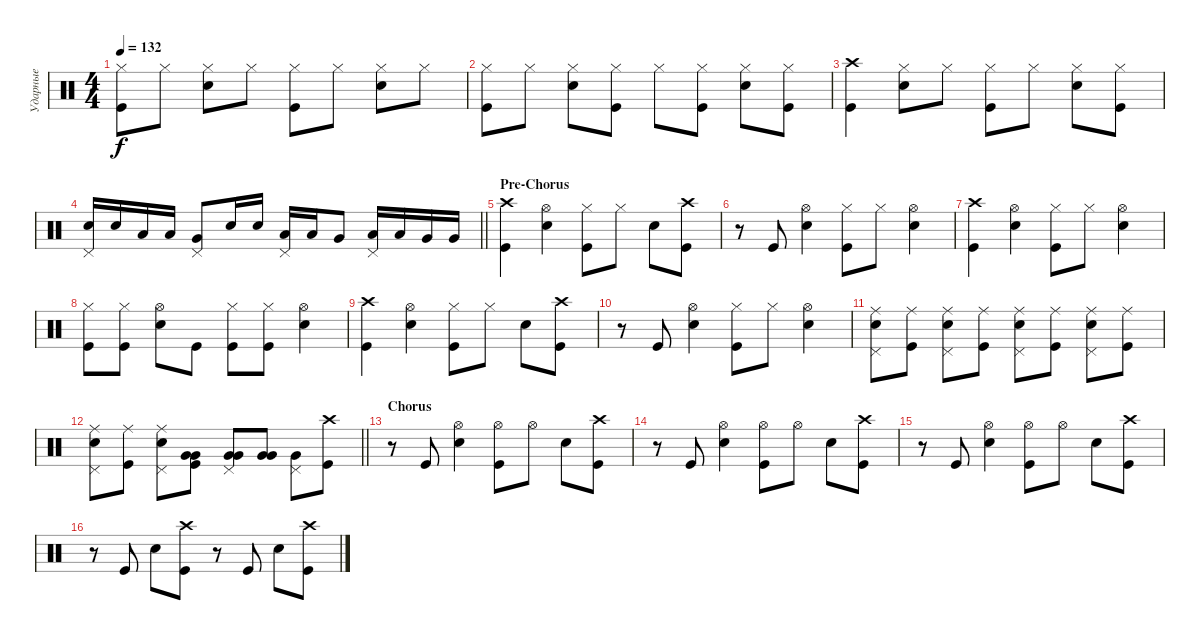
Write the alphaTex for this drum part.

\track ("Ударные" "Ударные") {instrument percussion}
\staff {score}
\articulation defaults
\ts (4 4)
\tempo 132
\clef neutral
\ks c
("Kick (hit)" "Hi-Hat (closed)").8{dy f} "Hi-Hat (closed)".8 ("Snare (hit) 2" "Hi-Hat (closed)").8 "Hi-Hat (closed)".8 ("Kick (hit)" "Hi-Hat (closed)").8 "Hi-Hat (closed)".8 ("Snare (hit) 2" "Hi-Hat (closed)").8 "Hi-Hat (closed)".8 |
("Kick (hit)" "Hi-Hat (closed)").8 "Hi-Hat (closed)".8 ("Snare (hit) 2" "Hi-Hat (closed)").8 ("Hi-Hat (closed)" "Kick (hit)").8 "Hi-Hat (closed)".8 ("Hi-Hat (closed)" "Kick (hit)").8 ("Snare (hit) 2" "Hi-Hat (closed)").8 ("Kick (hit)" "Hi-Hat (closed)").8 |
("Kick (hit)" "Crash high (hit)").4 ("Snare (hit) 2" "Hi-Hat (closed)").8 "Hi-Hat (closed)".8 ("Kick (hit)" "Hi-Hat (closed)").8 "Hi-Hat (closed)".8 ("Snare (hit) 2" "Hi-Hat (closed)").8 ("Kick (hit)" "Hi-Hat (closed)").8 |
\barLineRight lightlight
("Snare (hit) 2" "Pedal Hi-Hat (hit)").16 "Snare (hit) 2".16 "Low Tom (hit)".16 "Low Tom (hit)".16 ("Very Low Tom (hit)" "Pedal Hi-Hat (hit)").8 "Snare (hit) 2".16 "Snare (hit) 2".16 ("Low Tom (hit)" "Pedal Hi-Hat (hit)").16 "Low Tom (hit)".16 "Very Low Tom (hit)".8 ("Low Tom (hit)" "Pedal Hi-Hat (hit)").16 "Low Tom (hit)".16 "Very Low Tom (hit)".16 "Very Low Tom (hit)".16 |
\section ("" "Pre-Chorus")
("Kick (hit)" "Crash high (hit)").4 ("Snare (hit) 2" "Hi-Hat (open)").4 ("Hi-Hat (closed)" "Kick (hit)").8 "Hi-Hat (closed)".8 "Snare (hit) 2".8 ("Kick (hit)" "Crash high (hit)").8 |
r.8 "Kick (hit)".8 ("Snare (hit) 2" "Hi-Hat (open)").4 ("Hi-Hat (closed)" "Kick (hit)").8 "Hi-Hat (closed)".8 ("Hi-Hat (open)" "Snare (hit) 2").4 |
("Kick (hit)" "Crash high (hit)").4 ("Hi-Hat (open)" "Snare (hit) 2").4 ("Kick (hit)" "Hi-Hat (closed)").8 "Hi-Hat (closed)".8 ("Snare (hit) 2" "Hi-Hat (open)").4 |
("Kick (hit)" "Hi-Hat (closed)").8 ("Kick (hit)" "Hi-Hat (closed)").8 ("Snare (hit) 2" "Hi-Hat (open)").8 "Kick (hit)".8 ("Kick (hit)" "Hi-Hat (closed)").8 ("Kick (hit)" "Hi-Hat (closed)").8 ("Snare (hit) 2" "Hi-Hat (open)").4 |
("Kick (hit)" "Crash high (hit)").4 ("Snare (hit) 2" "Hi-Hat (open)").4 ("Hi-Hat (closed)" "Kick (hit)").8 "Hi-Hat (closed)".8 "Snare (hit) 2".8 ("Kick (hit)" "Crash high (hit)").8 |
r.8 "Kick (hit)".8 ("Snare (hit) 2" "Hi-Hat (open)").4 ("Hi-Hat (closed)" "Kick (hit)").8 "Hi-Hat (closed)".8 ("Hi-Hat (open)" "Snare (hit) 2").4 |
("Snare (hit) 2" "Pedal Hi-Hat (hit)" "Ride (middle)").8 ("Kick (hit)" "Ride (middle)").8 ("Snare (hit) 2" "Pedal Hi-Hat (hit)" "Ride (middle)").8 ("Kick (hit)" "Ride (middle)").8 ("Snare (hit) 2" "Pedal Hi-Hat (hit)" "Ride (middle)").8 ("Kick (hit)" "Ride (middle)").8 ("Snare (hit) 2" "Pedal Hi-Hat (hit)" "Ride (middle)").8 ("Kick (hit)" "Ride (middle)").8 |
\barLineRight lightlight
("Snare (hit) 2" "Pedal Hi-Hat (hit)" "Ride (middle)").8 ("Kick (hit)" "Ride (middle)").8 ("Snare (hit) 2" "Pedal Hi-Hat (hit)" "Ride (middle)").8 ("Kick (hit)" "Very Low Tom (hit)" "Very Low Tom (hit)").8{bd 120} ("Pedal Hi-Hat (hit)" "Very Low Tom (hit)" "Very Low Tom (hit)").8{bd 120} ("Very Low Tom (hit)" "Very Low Tom (hit)").8{bd 120} ("Pedal Hi-Hat (hit)" "Very Low Tom (hit)").8 ("Kick (hit)" "Crash high (hit)").8 |
\section ("" "Chorus")
r.8 "Kick (hit)".8 ("Snare (hit) 2" "Hi-Hat (open)").4 ("Hi-Hat (open)" "Kick (hit)").8 "Hi-Hat (open)".8 "Snare (hit) 2".8 ("Kick (hit)" "Crash high (hit)").8 |
r.8 "Kick (hit)".8 ("Snare (hit) 2" "Hi-Hat (open)").4 ("Hi-Hat (open)" "Kick (hit)").8 "Hi-Hat (open)".8 "Snare (hit) 2".8 ("Kick (hit)" "Crash high (hit)").8 |
r.8 "Kick (hit)".8 ("Snare (hit) 2" "Hi-Hat (open)").4 ("Hi-Hat (open)" "Kick (hit)").8 "Hi-Hat (open)".8 "Snare (hit) 2".8 ("Kick (hit)" "Crash high (hit)").8 |
r.8 "Kick (hit)".8 "Snare (hit) 2".8 ("Crash high (hit)" "Kick (hit)").8 r.8 "Kick (hit)".8 "Snare (hit) 2".8 ("Kick (hit)" "Crash high (hit)").8
